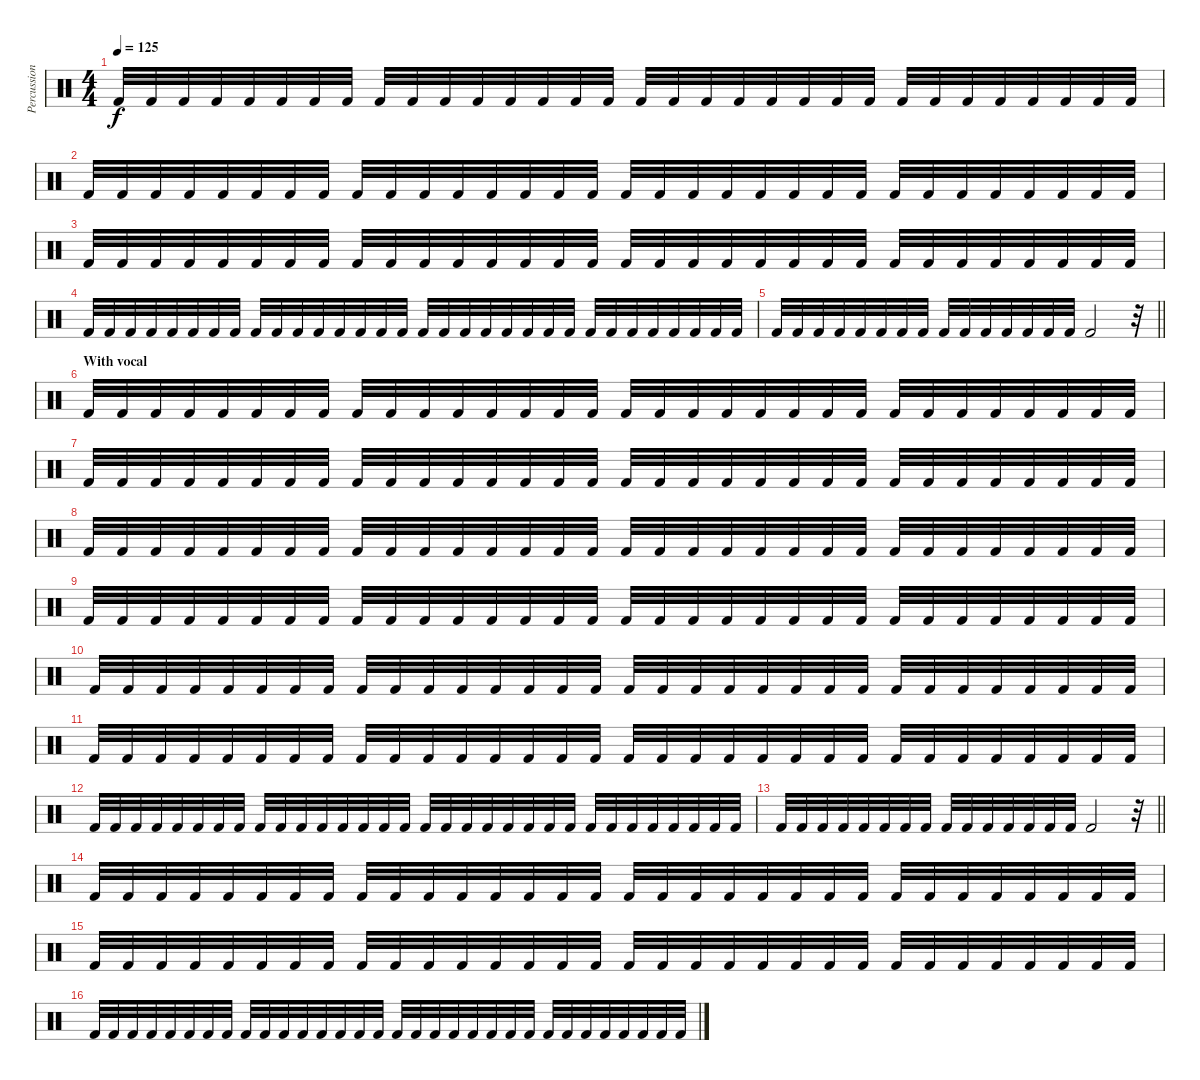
\track ("Percussion" "Percussion") {instrument percussion}
\staff {score}
\articulation defaults
\ts (4 4)
\tempo 125
\clef neutral
\ks c "Kick (hit) 2".32{dy f} "Kick (hit) 2".32 "Kick (hit) 2".32 "Kick (hit) 2".32 "Kick (hit) 2".32 "Kick (hit) 2".32 "Kick (hit) 2".32 "Kick (hit) 2".32 "Kick (hit) 2".32 "Kick (hit) 2".32 "Kick (hit) 2".32 "Kick (hit) 2".32 "Kick (hit) 2".32 "Kick (hit) 2".32 "Kick (hit) 2".32 "Kick (hit) 2".32 "Kick (hit) 2".32 "Kick (hit) 2".32 "Kick (hit) 2".32 "Kick (hit) 2".32 "Kick (hit) 2".32 "Kick (hit) 2".32 "Kick (hit) 2".32 "Kick (hit) 2".32 "Kick (hit) 2".32 "Kick (hit) 2".32 "Kick (hit) 2".32 "Kick (hit) 2".32 "Kick (hit) 2".32 "Kick (hit) 2".32 "Kick (hit) 2".32 "Kick (hit) 2".32
|
"Kick (hit) 2".32 "Kick (hit) 2".32 "Kick (hit) 2".32 "Kick (hit) 2".32 "Kick (hit) 2".32 "Kick (hit) 2".32 "Kick (hit) 2".32 "Kick (hit) 2".32 "Kick (hit) 2".32 "Kick (hit) 2".32 "Kick (hit) 2".32 "Kick (hit) 2".32 "Kick (hit) 2".32 "Kick (hit) 2".32 "Kick (hit) 2".32 "Kick (hit) 2".32 "Kick (hit) 2".32 "Kick (hit) 2".32 "Kick (hit) 2".32 "Kick (hit) 2".32 "Kick (hit) 2".32 "Kick (hit) 2".32 "Kick (hit) 2".32 "Kick (hit) 2".32 "Kick (hit) 2".32 "Kick (hit) 2".32 "Kick (hit) 2".32 "Kick (hit) 2".32 "Kick (hit) 2".32 "Kick (hit) 2".32 "Kick (hit) 2".32 "Kick (hit) 2".32 |
"Kick (hit) 2".32 "Kick (hit) 2".32 "Kick (hit) 2".32 "Kick (hit) 2".32 "Kick (hit) 2".32 "Kick (hit) 2".32 "Kick (hit) 2".32 "Kick (hit) 2".32 "Kick (hit) 2".32 "Kick (hit) 2".32 "Kick (hit) 2".32 "Kick (hit) 2".32 "Kick (hit) 2".32 "Kick (hit) 2".32 "Kick (hit) 2".32 "Kick (hit) 2".32 "Kick (hit) 2".32 "Kick (hit) 2".32 "Kick (hit) 2".32 "Kick (hit) 2".32 "Kick (hit) 2".32 "Kick (hit) 2".32 "Kick (hit) 2".32 "Kick (hit) 2".32 "Kick (hit) 2".32 "Kick (hit) 2".32 "Kick (hit) 2".32 "Kick (hit) 2".32 "Kick (hit) 2".32 "Kick (hit) 2".32 "Kick (hit) 2".32 "Kick (hit) 2".32 |
"Kick (hit) 2".32 "Kick (hit) 2".32 "Kick (hit) 2".32 "Kick (hit) 2".32 "Kick (hit) 2".32 "Kick (hit) 2".32 "Kick (hit) 2".32 "Kick (hit) 2".32 "Kick (hit) 2".32 "Kick (hit) 2".32 "Kick (hit) 2".32 "Kick (hit) 2".32 "Kick (hit) 2".32 "Kick (hit) 2".32 "Kick (hit) 2".32 "Kick (hit) 2".32 "Kick (hit) 2".32 "Kick (hit) 2".32 "Kick (hit) 2".32 "Kick (hit) 2".32 "Kick (hit) 2".32 "Kick (hit) 2".32 "Kick (hit) 2".32 "Kick (hit) 2".32 "Kick (hit) 2".32 "Kick (hit) 2".32 "Kick (hit) 2".32 "Kick (hit) 2".32 "Kick (hit) 2".32 "Kick (hit) 2".32 "Kick (hit) 2".32 "Kick (hit) 2".32 |
\barLineRight lightlight "Kick (hit) 2".32 "Kick (hit) 2".32 "Kick (hit) 2".32 "Kick (hit) 2".32 "Kick (hit) 2".32 "Kick (hit) 2".32 "Kick (hit) 2".32 "Kick (hit) 2".32 "Kick (hit) 2".32 "Kick (hit) 2".32 "Kick (hit) 2".32 "Kick (hit) 2".32 "Kick (hit) 2".32 "Kick (hit) 2".32 "Kick (hit) 2".32 "Kick (hit) 2".2
r.32 |
\section ("" "With vocal")
"Kick (hit) 2".32 "Kick (hit) 2".32 "Kick (hit) 2".32 "Kick (hit) 2".32 "Kick (hit) 2".32 "Kick (hit) 2".32 "Kick (hit) 2".32 "Kick (hit) 2".32 "Kick (hit) 2".32 "Kick (hit) 2".32 "Kick (hit) 2".32 "Kick (hit) 2".32 "Kick (hit) 2".32 "Kick (hit) 2".32 "Kick (hit) 2".32 "Kick (hit) 2".32 "Kick (hit) 2".32 "Kick (hit) 2".32 "Kick (hit) 2".32 "Kick (hit) 2".32 "Kick (hit) 2".32 "Kick (hit) 2".32 "Kick (hit) 2".32 "Kick (hit) 2".32 "Kick (hit) 2".32 "Kick (hit) 2".32 "Kick (hit) 2".32 "Kick (hit) 2".32 "Kick (hit) 2".32 "Kick (hit) 2".32 "Kick (hit) 2".32 "Kick (hit) 2".32 |
"Kick (hit) 2".32 "Kick (hit) 2".32 "Kick (hit) 2".32 "Kick (hit) 2".32 "Kick (hit) 2".32 "Kick (hit) 2".32 "Kick (hit) 2".32 "Kick (hit) 2".32 "Kick (hit) 2".32 "Kick (hit) 2".32 "Kick (hit) 2".32 "Kick (hit) 2".32 "Kick (hit) 2".32 "Kick (hit) 2".32 "Kick (hit) 2".32 "Kick (hit) 2".32 "Kick (hit) 2".32 "Kick (hit) 2".32 "Kick (hit) 2".32 "Kick (hit) 2".32 "Kick (hit) 2".32 "Kick (hit) 2".32 "Kick (hit) 2".32 "Kick (hit) 2".32 "Kick (hit) 2".32 "Kick (hit) 2".32 "Kick (hit) 2".32 "Kick (hit) 2".32 "Kick (hit) 2".32 "Kick (hit) 2".32 "Kick (hit) 2".32 "Kick (hit) 2".32 |
"Kick (hit) 2".32 "Kick (hit) 2".32 "Kick (hit) 2".32 "Kick (hit) 2".32 "Kick (hit) 2".32 "Kick (hit) 2".32 "Kick (hit) 2".32 "Kick (hit) 2".32 "Kick (hit) 2".32 "Kick (hit) 2".32 "Kick (hit) 2".32 "Kick (hit) 2".32 "Kick (hit) 2".32 "Kick (hit) 2".32 "Kick (hit) 2".32 "Kick (hit) 2".32 "Kick (hit) 2".32 "Kick (hit) 2".32 "Kick (hit) 2".32 "Kick (hit) 2".32 "Kick (hit) 2".32 "Kick (hit) 2".32 "Kick (hit) 2".32 "Kick (hit) 2".32 "Kick (hit) 2".32 "Kick (hit) 2".32 "Kick (hit) 2".32 "Kick (hit) 2".32 "Kick (hit) 2".32 "Kick (hit) 2".32 "Kick (hit) 2".32 "Kick (hit) 2".32 |
"Kick (hit) 2".32 "Kick (hit) 2".32 "Kick (hit) 2".32 "Kick (hit) 2".32 "Kick (hit) 2".32 "Kick (hit) 2".32 "Kick (hit) 2".32 "Kick (hit) 2".32 "Kick (hit) 2".32 "Kick (hit) 2".32 "Kick (hit) 2".32 "Kick (hit) 2".32 "Kick (hit) 2".32 "Kick (hit) 2".32 "Kick (hit) 2".32 "Kick (hit) 2".32 "Kick (hit) 2".32 "Kick (hit) 2".32 "Kick (hit) 2".32 "Kick (hit) 2".32 "Kick (hit) 2".32 "Kick (hit) 2".32 "Kick (hit) 2".32 "Kick (hit) 2".32 "Kick (hit) 2".32 "Kick (hit) 2".32 "Kick (hit) 2".32 "Kick (hit) 2".32 "Kick (hit) 2".32 "Kick (hit) 2".32 "Kick (hit) 2".32 "Kick (hit) 2".32 |
"Kick (hit) 2".32 "Kick (hit) 2".32 "Kick (hit) 2".32 "Kick (hit) 2".32 "Kick (hit) 2".32 "Kick (hit) 2".32 "Kick (hit) 2".32 "Kick (hit) 2".32 "Kick (hit) 2".32 "Kick (hit) 2".32 "Kick (hit) 2".32 "Kick (hit) 2".32 "Kick (hit) 2".32 "Kick (hit) 2".32 "Kick (hit) 2".32 "Kick (hit) 2".32 "Kick (hit) 2".32 "Kick (hit) 2".32 "Kick (hit) 2".32 "Kick (hit) 2".32 "Kick (hit) 2".32 "Kick (hit) 2".32 "Kick (hit) 2".32 "Kick (hit) 2".32 "Kick (hit) 2".32 "Kick (hit) 2".32 "Kick (hit) 2".32 "Kick (hit) 2".32 "Kick (hit) 2".32 "Kick (hit) 2".32 "Kick (hit) 2".32 "Kick (hit) 2".32 |
"Kick (hit) 2".32 "Kick (hit) 2".32 "Kick (hit) 2".32 "Kick (hit) 2".32 "Kick (hit) 2".32 "Kick (hit) 2".32 "Kick (hit) 2".32 "Kick (hit) 2".32 "Kick (hit) 2".32 "Kick (hit) 2".32 "Kick (hit) 2".32 "Kick (hit) 2".32 "Kick (hit) 2".32 "Kick (hit) 2".32 "Kick (hit) 2".32 "Kick (hit) 2".32 "Kick (hit) 2".32 "Kick (hit) 2".32 "Kick (hit) 2".32 "Kick (hit) 2".32 "Kick (hit) 2".32 "Kick (hit) 2".32 "Kick (hit) 2".32 "Kick (hit) 2".32 "Kick (hit) 2".32 "Kick (hit) 2".32 "Kick (hit) 2".32 "Kick (hit) 2".32 "Kick (hit) 2".32 "Kick (hit) 2".32 "Kick (hit) 2".32 "Kick (hit) 2".32 |
"Kick (hit) 2".32 "Kick (hit) 2".32 "Kick (hit) 2".32 "Kick (hit) 2".32 "Kick (hit) 2".32 "Kick (hit) 2".32 "Kick (hit) 2".32 "Kick (hit) 2".32 "Kick (hit) 2".32 "Kick (hit) 2".32 "Kick (hit) 2".32 "Kick (hit) 2".32 "Kick (hit) 2".32 "Kick (hit) 2".32 "Kick (hit) 2".32 "Kick (hit) 2".32 "Kick (hit) 2".32 "Kick (hit) 2".32 "Kick (hit) 2".32 "Kick (hit) 2".32 "Kick (hit) 2".32 "Kick (hit) 2".32 "Kick (hit) 2".32 "Kick (hit) 2".32 "Kick (hit) 2".32 "Kick (hit) 2".32 "Kick (hit) 2".32 "Kick (hit) 2".32 "Kick (hit) 2".32 "Kick (hit) 2".32 "Kick (hit) 2".32 "Kick (hit) 2".32 |
\barLineRight lightlight "Kick (hit) 2".32 "Kick (hit) 2".32 "Kick (hit) 2".32 "Kick (hit) 2".32 "Kick (hit) 2".32 "Kick (hit) 2".32 "Kick (hit) 2".32 "Kick (hit) 2".32 "Kick (hit) 2".32 "Kick (hit) 2".32 "Kick (hit) 2".32 "Kick (hit) 2".32 "Kick (hit) 2".32 "Kick (hit) 2".32 "Kick (hit) 2".32 "Kick (hit) 2".2
r.32 |
"Kick (hit) 2".32 "Kick (hit) 2".32 "Kick (hit) 2".32 "Kick (hit) 2".32 "Kick (hit) 2".32 "Kick (hit) 2".32 "Kick (hit) 2".32 "Kick (hit) 2".32 "Kick (hit) 2".32 "Kick (hit) 2".32 "Kick (hit) 2".32 "Kick (hit) 2".32 "Kick (hit) 2".32 "Kick (hit) 2".32 "Kick (hit) 2".32 "Kick (hit) 2".32 "Kick (hit) 2".32 "Kick (hit) 2".32 "Kick (hit) 2".32 "Kick (hit) 2".32 "Kick (hit) 2".32 "Kick (hit) 2".32 "Kick (hit) 2".32 "Kick (hit) 2".32 "Kick (hit) 2".32 "Kick (hit) 2".32 "Kick (hit) 2".32 "Kick (hit) 2".32 "Kick (hit) 2".32 "Kick (hit) 2".32 "Kick (hit) 2".32 "Kick (hit) 2".32 |
"Kick (hit) 2".32 "Kick (hit) 2".32 "Kick (hit) 2".32 "Kick (hit) 2".32 "Kick (hit) 2".32 "Kick (hit) 2".32 "Kick (hit) 2".32 "Kick (hit) 2".32 "Kick (hit) 2".32 "Kick (hit) 2".32 "Kick (hit) 2".32 "Kick (hit) 2".32 "Kick (hit) 2".32 "Kick (hit) 2".32 "Kick (hit) 2".32 "Kick (hit) 2".32 "Kick (hit) 2".32 "Kick (hit) 2".32 "Kick (hit) 2".32 "Kick (hit) 2".32 "Kick (hit) 2".32 "Kick (hit) 2".32 "Kick (hit) 2".32 "Kick (hit) 2".32 "Kick (hit) 2".32 "Kick (hit) 2".32 "Kick (hit) 2".32 "Kick (hit) 2".32 "Kick (hit) 2".32 "Kick (hit) 2".32 "Kick (hit) 2".32 "Kick (hit) 2".32 |
"Kick (hit) 2".32 "Kick (hit) 2".32 "Kick (hit) 2".32 "Kick (hit) 2".32 "Kick (hit) 2".32 "Kick (hit) 2".32 "Kick (hit) 2".32 "Kick (hit) 2".32 "Kick (hit) 2".32 "Kick (hit) 2".32 "Kick (hit) 2".32 "Kick (hit) 2".32 "Kick (hit) 2".32 "Kick (hit) 2".32 "Kick (hit) 2".32 "Kick (hit) 2".32 "Kick (hit) 2".32 "Kick (hit) 2".32 "Kick (hit) 2".32 "Kick (hit) 2".32 "Kick (hit) 2".32 "Kick (hit) 2".32 "Kick (hit) 2".32 "Kick (hit) 2".32 "Kick (hit) 2".32 "Kick (hit) 2".32 "Kick (hit) 2".32 "Kick (hit) 2".32 "Kick (hit) 2".32 "Kick (hit) 2".32 "Kick (hit) 2".32 "Kick (hit) 2".32
